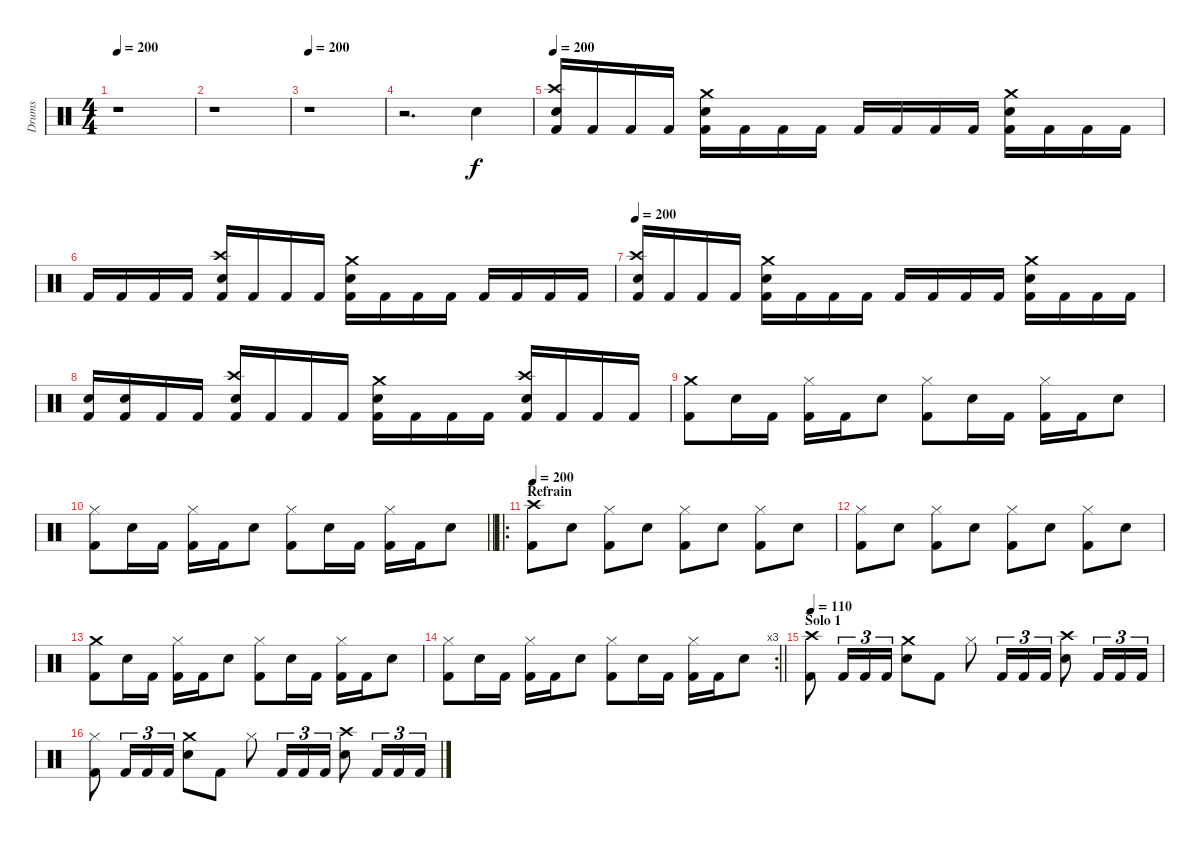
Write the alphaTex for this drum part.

\track ("Drums" "Drums") {instrument percussion}
\staff {score}
\articulation defaults
\ts (4 4)
\tempo 200
\clef neutral
\ks c
r.1{dy f} |
r.1 |
\tempo 200
r.1 |
r.2{d} "Electric Snare (hit)".4 |
\tempo 200
("Crash high (hit)" "Electric Snare (hit)" "Kick (hit) 2").16 "Kick (hit) 2".16 "Kick (hit) 2".16 "Kick (hit) 2".16 ("Crash medium (hit)" "Electric Snare (hit)" "Kick (hit) 2").16 "Kick (hit) 2".16 "Kick (hit) 2".16 "Kick (hit) 2".16 "Kick (hit) 2".16 "Kick (hit) 2".16 "Kick (hit) 2".16 "Kick (hit) 2".16 ("Crash medium (hit)" "Electric Snare (hit)" "Kick (hit) 2").16 "Kick (hit) 2".16 "Kick (hit) 2".16 "Kick (hit) 2".16 |
"Kick (hit) 2".16 "Kick (hit) 2".16 "Kick (hit) 2".16 "Kick (hit) 2".16 ("Crash high (hit)" "Electric Snare (hit)" "Kick (hit) 2").16 "Kick (hit) 2".16 "Kick (hit) 2".16 "Kick (hit) 2".16 ("Crash medium (hit)" "Electric Snare (hit)" "Kick (hit) 2").16 "Kick (hit) 2".16 "Kick (hit) 2".16 "Kick (hit) 2".16 "Kick (hit) 2".16 "Kick (hit) 2".16 "Kick (hit) 2".16 "Kick (hit) 2".16 |
\tempo 200
("Crash high (hit)" "Electric Snare (hit)" "Kick (hit) 2").16 "Kick (hit) 2".16 "Kick (hit) 2".16 "Kick (hit) 2".16 ("Crash medium (hit)" "Electric Snare (hit)" "Kick (hit) 2").16 "Kick (hit) 2".16 "Kick (hit) 2".16 "Kick (hit) 2".16 "Kick (hit) 2".16 "Kick (hit) 2".16 "Kick (hit) 2".16 "Kick (hit) 2".16 ("Crash medium (hit)" "Electric Snare (hit)" "Kick (hit) 2").16 "Kick (hit) 2".16 "Kick (hit) 2".16 "Kick (hit) 2".16 |
("Electric Snare (hit)" "Kick (hit) 2").16 ("Electric Snare (hit)" "Kick (hit) 2").16 "Kick (hit) 2".16 "Kick (hit) 2".16 ("Crash high (hit)" "Electric Snare (hit)" "Kick (hit) 2").16 "Kick (hit) 2".16 "Kick (hit) 2".16 "Kick (hit) 2".16 ("Crash medium (hit)" "Electric Snare (hit)" "Kick (hit) 2").16 "Kick (hit) 2".16 "Kick (hit) 2".16 "Kick (hit) 2".16 ("Crash high (hit)" "Electric Snare (hit)" "Kick (hit) 2").16 "Kick (hit) 2".16 "Kick (hit) 2".16 "Kick (hit) 2".16 |
("Crash medium (hit)" "Kick (hit) 2").8 "Electric Snare (hit)".16 "Kick (hit) 2".16 ("Hi-Hat (closed)" "Kick (hit) 2").16 "Kick (hit) 2".16 "Electric Snare (hit)".8 ("Hi-Hat (closed)" "Kick (hit) 2").8 "Electric Snare (hit)".16 "Kick (hit) 2".16 ("Hi-Hat (closed)" "Kick (hit) 2").16 "Kick (hit) 2".16 "Electric Snare (hit)".8 |
\barLineRight lightlight
("Hi-Hat (closed)" "Kick (hit) 2").8 "Electric Snare (hit)".16 "Kick (hit) 2".16 ("Hi-Hat (closed)" "Kick (hit) 2").16 "Kick (hit) 2".16 "Electric Snare (hit)".8 ("Hi-Hat (closed)" "Kick (hit) 2").8 "Electric Snare (hit)".16 "Kick (hit) 2".16 ("Hi-Hat (closed)" "Kick (hit) 2").16 "Kick (hit) 2".16 "Electric Snare (hit)".8 |
\ro
\section ("" "Refrain")
\tempo 200
("Crash high (hit)" "Kick (hit) 2").8 "Electric Snare (hit)".8 ("Hi-Hat (closed)" "Kick (hit) 2").8 "Electric Snare (hit)".8 ("Hi-Hat (closed)" "Kick (hit) 2").8 "Electric Snare (hit)".8 ("Hi-Hat (closed)" "Kick (hit) 2").8 "Electric Snare (hit)".8 |
("Hi-Hat (closed)" "Kick (hit) 2").8 "Electric Snare (hit)".8 ("Hi-Hat (closed)" "Kick (hit) 2").8 "Electric Snare (hit)".8 ("Hi-Hat (closed)" "Kick (hit) 2").8 "Electric Snare (hit)".8 ("Hi-Hat (closed)" "Kick (hit) 2").8 "Electric Snare (hit)".8 |
("Crash medium (hit)" "Kick (hit) 2").8 "Electric Snare (hit)".16 "Kick (hit) 2".16 ("Hi-Hat (closed)" "Kick (hit) 2").16 "Kick (hit) 2".16 "Electric Snare (hit)".8 ("Hi-Hat (closed)" "Kick (hit) 2").8 "Electric Snare (hit)".16 "Kick (hit) 2".16 ("Hi-Hat (closed)" "Kick (hit) 2").16 "Kick (hit) 2".16 "Electric Snare (hit)".8 |
\rc 3
\barLineRight lightlight
("Hi-Hat (closed)" "Kick (hit) 2").8 "Electric Snare (hit)".16 "Kick (hit) 2".16 ("Hi-Hat (closed)" "Kick (hit) 2").16 "Kick (hit) 2".16 "Electric Snare (hit)".8 ("Hi-Hat (closed)" "Kick (hit) 2").8 "Electric Snare (hit)".16 "Kick (hit) 2".16 ("Hi-Hat (closed)" "Kick (hit) 2").16 "Kick (hit) 2".16 "Electric Snare (hit)".8 |
\section ("" "Solo 1")
\tempo 110
("Crash high (hit)" "Kick (hit) 2").8 "Kick (hit) 2".16{tu (3 2)} "Kick (hit) 2".16{tu (3 2)} "Kick (hit) 2".16{tu (3 2)} ("Crash medium (hit)" "Electric Snare (hit)").8 "Kick (hit) 2".8 "Hi-Hat (closed)".8 "Kick (hit) 2".16{tu (3 2)} "Kick (hit) 2".16{tu (3 2)} "Kick (hit) 2".16{tu (3 2)} ("Crash high (hit)" "Electric Snare (hit)").8 "Kick (hit) 2".16{tu (3 2)} "Kick (hit) 2".16{tu (3 2)} "Kick (hit) 2".16{tu (3 2)} |
("Hi-Hat (closed)" "Kick (hit) 2").8 "Kick (hit) 2".16{tu (3 2)} "Kick (hit) 2".16{tu (3 2)} "Kick (hit) 2".16{tu (3 2)} ("Crash medium (hit)" "Electric Snare (hit)").8 "Kick (hit) 2".8 "Hi-Hat (closed)".8 "Kick (hit) 2".16{tu (3 2)} "Kick (hit) 2".16{tu (3 2)} "Kick (hit) 2".16{tu (3 2)} ("Crash high (hit)" "Electric Snare (hit)").8 "Kick (hit) 2".16{tu (3 2)} "Kick (hit) 2".16{tu (3 2)} "Kick (hit) 2".16{tu (3 2)}
